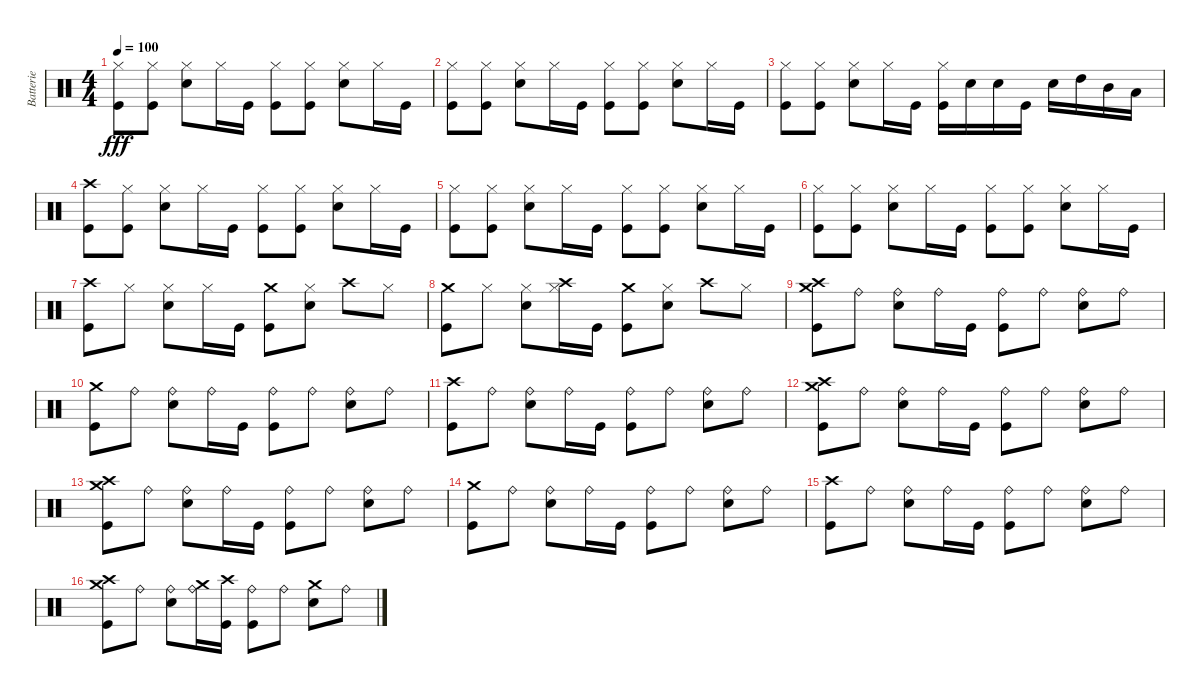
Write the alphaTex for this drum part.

\track ("Batterie" "Batterie") {instrument percussion}
\staff {score}
\articulation defaults
\ts (4 4)
\tempo 100
\clef neutral
\ks c
("Hi-Hat (closed)" "Kick (hit)").8{dy fff} ("Hi-Hat (closed)" "Kick (hit)").8 ("Hi-Hat (closed)" "Electric Snare (hit)").8 "Hi-Hat (closed)".16 "Kick (hit)".16 ("Hi-Hat (closed)" "Kick (hit)").8 ("Hi-Hat (closed)" "Kick (hit)").8 ("Hi-Hat (closed)" "Electric Snare (hit)").8 "Hi-Hat (closed)".16 "Kick (hit)".16 |
("Hi-Hat (closed)" "Kick (hit)").8 ("Hi-Hat (closed)" "Kick (hit)").8 ("Hi-Hat (closed)" "Electric Snare (hit)").8 "Hi-Hat (closed)".16 "Kick (hit)".16 ("Hi-Hat (closed)" "Kick (hit)").8 ("Hi-Hat (closed)" "Kick (hit)").8 ("Hi-Hat (closed)" "Electric Snare (hit)").8 "Hi-Hat (closed)".16 "Kick (hit)".16 |
("Hi-Hat (closed)" "Kick (hit)").8 ("Hi-Hat (closed)" "Kick (hit)").8 ("Hi-Hat (closed)" "Electric Snare (hit)").8 "Hi-Hat (closed)".16 "Kick (hit)".16 ("Hi-Hat (closed)" "Kick (hit)").16 "Electric Snare (hit)".16 "Electric Snare (hit)".16 "Kick (hit)".16 "Electric Snare (hit)".16 "High Tom (hit)".16 "Mid Tom (hit)".16 "Low Floor Tom (hit)".16 |
("Crash high (hit)" "Kick (hit)").8 ("Hi-Hat (closed)" "Kick (hit)").8 ("Hi-Hat (closed)" "Electric Snare (hit)").8 "Hi-Hat (closed)".16 "Kick (hit)".16 ("Hi-Hat (closed)" "Kick (hit)").8 ("Hi-Hat (closed)" "Kick (hit)").8 ("Hi-Hat (closed)" "Electric Snare (hit)").8 "Hi-Hat (closed)".16 "Kick (hit)".16 |
("Hi-Hat (closed)" "Kick (hit)").8 ("Hi-Hat (closed)" "Kick (hit)").8 ("Hi-Hat (closed)" "Electric Snare (hit)").8 "Hi-Hat (closed)".16 "Kick (hit)".16 ("Hi-Hat (closed)" "Kick (hit)").8 ("Hi-Hat (closed)" "Kick (hit)").8 ("Hi-Hat (closed)" "Electric Snare (hit)").8 "Hi-Hat (closed)".16 "Kick (hit)".16 |
("Hi-Hat (closed)" "Kick (hit)").8 ("Hi-Hat (closed)" "Kick (hit)").8 ("Hi-Hat (closed)" "Electric Snare (hit)").8 "Hi-Hat (closed)".16 "Kick (hit)".16 ("Hi-Hat (closed)" "Kick (hit)").8 ("Hi-Hat (closed)" "Kick (hit)").8 ("Hi-Hat (closed)" "Electric Snare (hit)").8 "Hi-Hat (closed)".16 "Kick (hit)".16 |
("Crash high (hit)" "Kick (hit)").8 "Hi-Hat (closed)".8 ("Hi-Hat (closed)" "Electric Snare (hit)").8 "Hi-Hat (closed)".16 "Kick (hit)".16 ("Crash medium (hit)" "Kick (hit)").8 ("Hi-Hat (closed)" "Electric Snare (hit)").8 "Crash high (hit)".8 "Hi-Hat (closed)".8 |
("Crash medium (hit)" "Kick (hit)").8 "Hi-Hat (closed)".8 ("Hi-Hat (closed)" "Electric Snare (hit)").8 ("Hi-Hat (closed)" "Crash high (hit)").16 "Kick (hit)".16 ("Crash medium (hit)" "Kick (hit)").8 ("Hi-Hat (closed)" "Electric Snare (hit)").8 "Crash high (hit)".8 "Hi-Hat (closed)".8 |
("Crash high (hit)" "Kick (hit)" "Crash medium (hit)").8 "Ride (bell)".8 ("Ride (bell)" "Electric Snare (hit)").8 "Ride (bell)".16 "Kick (hit)".16 ("Ride (bell)" "Kick (hit)").8 "Ride (bell)".8 ("Ride (bell)" "Electric Snare (hit)").8 "Ride (bell)".8 |
("Crash medium (hit)" "Kick (hit)").8 "Ride (bell)".8 ("Ride (bell)" "Electric Snare (hit)").8 "Ride (bell)".16 "Kick (hit)".16 ("Ride (bell)" "Kick (hit)").8 "Ride (bell)".8 ("Ride (bell)" "Electric Snare (hit)").8 "Ride (bell)".8 |
("Crash high (hit)" "Kick (hit)").8 "Ride (bell)".8 ("Ride (bell)" "Electric Snare (hit)").8 "Ride (bell)".16 "Kick (hit)".16 ("Ride (bell)" "Kick (hit)").8 "Ride (bell)".8 ("Ride (bell)" "Electric Snare (hit)").8 "Ride (bell)".8 |
("Crash high (hit)" "Kick (hit)" "Crash medium (hit)").8 "Ride (bell)".8 ("Ride (bell)" "Electric Snare (hit)").8 "Ride (bell)".16 "Kick (hit)".16 ("Ride (bell)" "Kick (hit)").8 "Ride (bell)".8 ("Ride (bell)" "Electric Snare (hit)").8 "Ride (bell)".8 |
("Crash high (hit)" "Kick (hit)" "Crash medium (hit)").8 "Ride (bell)".8 ("Ride (bell)" "Electric Snare (hit)").8 "Ride (bell)".16 "Kick (hit)".16 ("Ride (bell)" "Kick (hit)").8 "Ride (bell)".8 ("Ride (bell)" "Electric Snare (hit)").8 "Ride (bell)".8 |
("Crash medium (hit)" "Kick (hit)").8 "Ride (bell)".8 ("Ride (bell)" "Electric Snare (hit)").8 "Ride (bell)".16 "Kick (hit)".16 ("Ride (bell)" "Kick (hit)").8 "Ride (bell)".8 ("Ride (bell)" "Electric Snare (hit)").8 "Ride (bell)".8 |
("Crash high (hit)" "Kick (hit)").8 "Ride (bell)".8 ("Ride (bell)" "Electric Snare (hit)").8 "Ride (bell)".16 "Kick (hit)".16 ("Ride (bell)" "Kick (hit)").8 "Ride (bell)".8 ("Ride (bell)" "Electric Snare (hit)").8 "Ride (bell)".8 |
("Crash high (hit)" "Kick (hit)" "Crash medium (hit)").8 "Ride (bell)".8 ("Ride (bell)" "Electric Snare (hit)").8 ("Ride (bell)" "Crash medium (hit)").16 ("Crash high (hit)" "Kick (hit)").16 ("Ride (bell)" "Kick (hit)").8 "Ride (bell)".8 ("Crash medium (hit)" "Electric Snare (hit)").8 "Ride (bell)".8
